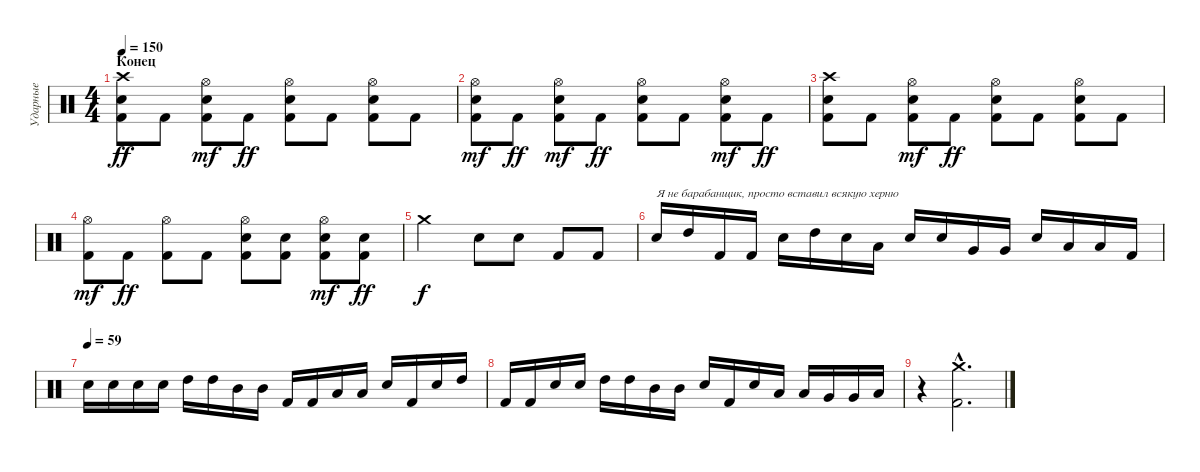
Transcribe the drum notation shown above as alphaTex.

\track ("Ударные" "Ударные") {instrument percussion}
\staff {score}
\articulation defaults
\ts (4 4)
\section ("" "Конец")
\tempo 150
\clef neutral
\ks c
("Crash high (hit)" "Kick (hit) 2" "Electric Snare (hit)").8{dy ff} "Kick (hit) 2".8 ("Kick (hit) 2" "Electric Snare (hit)" "Hi-Hat (open)").8{dy mf} "Kick (hit) 2".8{dy ff} ("Hi-Hat (open)" "Kick (hit) 2" "Electric Snare (hit)").8 "Kick (hit) 2".8 ("Kick (hit) 2" "Hi-Hat (open)" "Electric Snare (hit)").8 "Kick (hit) 2".8 |
("Kick (hit) 2" "Hi-Hat (open)" "Electric Snare (hit)").8{dy mf} "Kick (hit) 2".8{dy ff} ("Electric Snare (hit)" "Kick (hit) 2" "Hi-Hat (open)").8{dy mf} "Kick (hit) 2".8{dy ff} ("Hi-Hat (open)" "Kick (hit) 2" "Electric Snare (hit)").8 "Kick (hit) 2".8 ("Electric Snare (hit)" "Kick (hit) 2" "Hi-Hat (open)").8{dy mf} "Kick (hit) 2".8{dy ff} |
("Crash high (hit)" "Kick (hit) 2" "Electric Snare (hit)").8 "Kick (hit) 2".8 ("Kick (hit) 2" "Electric Snare (hit)" "Hi-Hat (open)").8{dy mf} "Kick (hit) 2".8{dy ff} ("Hi-Hat (open)" "Kick (hit) 2" "Electric Snare (hit)").8 "Kick (hit) 2".8 ("Kick (hit) 2" "Hi-Hat (open)" "Electric Snare (hit)").8 "Kick (hit) 2".8 |
("Kick (hit) 2" "Hi-Hat (open)").8{dy mf} "Kick (hit) 2".8{dy ff} ("Hi-Hat (open)" "Kick (hit) 2").8 "Kick (hit) 2".8 ("Hi-Hat (open)" "Kick (hit) 2" "Electric Snare (hit)").8 ("Kick (hit) 2" "Electric Snare (hit)").8 ("Electric Snare (hit)" "Kick (hit) 2" "Hi-Hat (open)").8{dy mf} ("Kick (hit) 2" "Electric Snare (hit)").8{dy ff} |
"Crash medium (hit)".2{dy f} "Electric Snare (hit)".8 "Electric Snare (hit)".8 "Kick (hit) 2".8 "Kick (hit) 2".8 |
"Electric Snare (hit)".16{txt "Я не барабанщик, просто вставил всякую херню"} "High Tom (hit)".16 "Kick (hit) 2".16 "Kick (hit) 2".16 "Electric Snare (hit)".16 "High Tom (hit)".16 "Electric Snare (hit)".16 "Low Tom (hit)".16 "Electric Snare (hit)".16 "Electric Snare (hit)".16 "Very Low Tom (hit)".16 "Very Low Tom (hit)".16 "Electric Snare (hit)".16 "Low Floor Tom (hit)".16 "Low Floor Tom (hit)".16 "Kick (hit) 2".16 |
\tempo (59)
"Electric Snare (hit)".16 "Electric Snare (hit)".16 "Electric Snare (hit)".16 "Electric Snare (hit)".16 "High Tom (hit)".16 "High Tom (hit)".16 "Mid Tom (hit)".16 "Mid Tom (hit)".16 "Kick (hit) 2".16 "Kick (hit) 2".16 "Low Tom (hit)".16 "Low Tom (hit)".16 "Electric Snare (hit)".16 "Kick (hit) 2".16 "Electric Snare (hit)".16 "High Tom (hit)".16 |
"Kick (hit) 2".16 "Kick (hit) 2".16 "Electric Snare (hit)".16 "Electric Snare (hit)".16 "High Tom (hit)".16 "High Tom (hit)".16 "Mid Tom (hit)".16 "Mid Tom (hit)".16 "Electric Snare (hit)".16 "Kick (hit) 2".16 "Electric Snare (hit)".16 "Low Floor Tom (hit)".16 "Low Floor Tom (hit)".16 "Very Low Tom (hit)".16 "Very Low Tom (hit)".16 "Low Tom (hit)".16 |
r.4 ("Crash medium (hit)"{hac} "Kick (hit) 2"{hac}).2{d}
